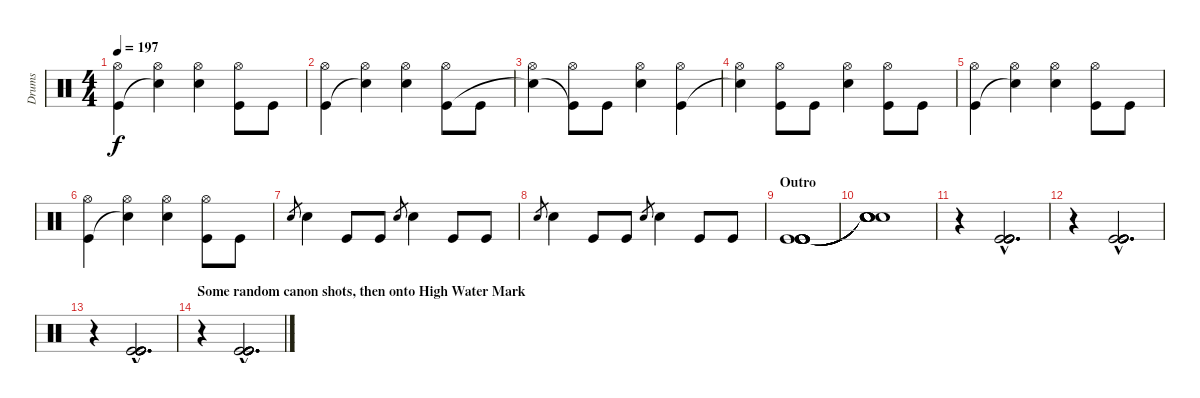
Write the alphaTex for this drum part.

\track ("Drums" "Drums") {instrument percussion}
\staff {score}
\articulation defaults
\ts (4 4)
\tempo 197
\clef neutral
\ks c
("Hi-Hat (open)" "Kick (hit)").4{dy f} ("Hi-Hat (open)" "Snare (hit)"{t}).4 ("Hi-Hat (open)" "Snare (hit) 2").4 ("Hi-Hat (open)" "Kick (hit)").8 "Kick (hit)".8 |
("Hi-Hat (open)" "Kick (hit)").4 ("Hi-Hat (open)" "Snare (hit)"{t}).4 ("Hi-Hat (open)" "Snare (hit) 2").4 ("Hi-Hat (open)" "Kick (hit)").8 "Kick (hit)".8 |
("Hi-Hat (open)" "Snare (hit)"{t}).4 ("Hi-Hat (open)" "Kick (hit)"{t}).8 "Kick (hit)".8 ("Hi-Hat (open)" "Snare (hit) 2").4 ("Hi-Hat (open)" "Kick (hit)").4 |
("Hi-Hat (open)" "Snare (hit)"{t}).4 ("Hi-Hat (open)" "Kick (hit)").8 "Kick (hit)".8 ("Hi-Hat (open)" "Snare (hit) 2").4 ("Hi-Hat (open)" "Kick (hit)").8 "Kick (hit)".8 |
("Hi-Hat (open)" "Kick (hit)").4 ("Hi-Hat (open)" "Snare (hit)"{t}).4 ("Hi-Hat (open)" "Snare (hit) 2").4 ("Hi-Hat (open)" "Kick (hit)").8 "Kick (hit)".8 |
("Hi-Hat (open)" "Kick (hit)").4 ("Hi-Hat (open)" "Snare (hit)"{t}).4 ("Hi-Hat (open)" "Snare (hit) 2").4 ("Hi-Hat (open)" "Kick (hit)").8 "Kick (hit)".8 |
"Snare (hit) 2".8{gr} "Snare (hit) 2".4 "Kick (hit)".8 "Kick (hit)".8 "Snare (hit) 2".8{gr} "Snare (hit) 2".4 "Kick (hit)".8 "Kick (hit)".8 |
"Snare (hit) 2".8{gr} "Snare (hit) 2".4 "Kick (hit)".8 "Kick (hit)".8 "Snare (hit) 2".8{gr} "Snare (hit) 2".4 "Kick (hit)".8 "Kick (hit)".8 |
\section ("" "Outro")
("Kick (hit)" "Kick (hit)" "Kick (hit)" "Kick (hit)" "Kick (hit)" "Kick (hit)").1 |
("Snare (hit)"{t} "Snare (hit)"{t} "Snare (hit)"{t} "Snare (hit)"{t} "Snare (hit)"{t} "Snare (hit)"{t}).1 |
r.4 ("Kick (hit)"{hac} "Kick (hit)"{hac} "Kick (hit)"{hac} "Kick (hit)"{hac} "Kick (hit)"{hac} "Kick (hit)"{hac}).2{d} |
r.4 ("Kick (hit)"{hac} "Kick (hit)"{hac} "Kick (hit)"{hac} "Kick (hit)"{hac} "Kick (hit)"{hac} "Kick (hit)"{hac}).2{d} |
r.4 ("Kick (hit)"{hac} "Kick (hit)"{hac} "Kick (hit)"{hac} "Kick (hit)"{hac} "Kick (hit)"{hac} "Kick (hit)"{hac}).2{d} |
\section ("" "Some random canon shots, then onto High Water Mark")
r.4 ("Kick (hit)"{hac} "Kick (hit)"{hac} "Kick (hit)"{hac} "Kick (hit)"{hac} "Kick (hit)"{hac} "Kick (hit)"{hac}).2{d}
